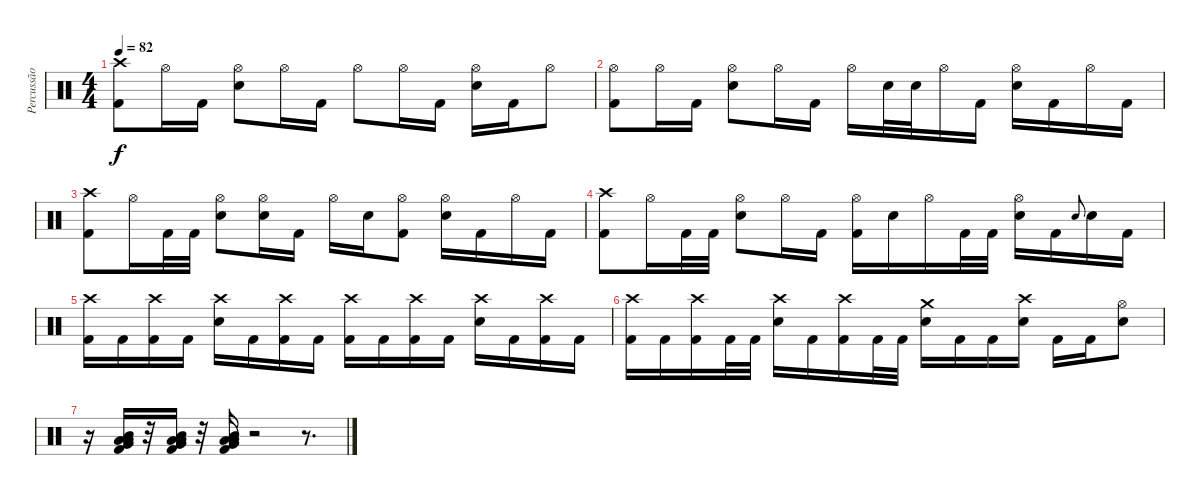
\track ("Percussão" "Percussão") {instrument percussion}
\staff {score}
\articulation defaults
\ts (4 4)
\tempo 82
\clef neutral
\ks c
("Crash high (hit)" "Kick (hit) 2").8{dy f} "Hi-Hat (open)".16 "Kick (hit) 2".16 ("Hi-Hat (open)" "Electric Snare (hit)").8 "Hi-Hat (open)".16 "Kick (hit) 2".16 "Hi-Hat (open)".8 "Hi-Hat (open)".16 "Kick (hit) 2".16 ("Hi-Hat (open)" "Electric Snare (hit)").16 "Kick (hit) 2".16 "Hi-Hat (open)".8 |
("Hi-Hat (open)" "Kick (hit) 2").8 "Hi-Hat (open)".16 "Kick (hit) 2".16 ("Hi-Hat (open)" "Electric Snare (hit)").8 "Hi-Hat (open)".16 "Kick (hit) 2".16 "Hi-Hat (open)".16 "Electric Snare (hit)".32 "Electric Snare (hit)".32 "Hi-Hat (open)".16 "Kick (hit) 2".16 ("Hi-Hat (open)" "Electric Snare (hit)").16 "Kick (hit) 2".16 "Hi-Hat (open)".16 "Kick (hit) 2".16 |
("Crash high (hit)" "Kick (hit) 2").8 "Hi-Hat (open)".16 "Kick (hit) 2".32 "Kick (hit) 2".32 ("Hi-Hat (open)" "Electric Snare (hit)").8 ("Electric Snare (hit)" "Hi-Hat (open)").16 "Kick (hit) 2".16 "Hi-Hat (open)".16 "Electric Snare (hit)".16 ("Kick (hit) 2" "Hi-Hat (open)").8 ("Hi-Hat (open)" "Electric Snare (hit)").16 "Kick (hit) 2".16 "Hi-Hat (open)".16 "Kick (hit) 2".16 |
("Crash high (hit)" "Kick (hit) 2").8 "Hi-Hat (open)".16 "Kick (hit) 2".32 "Kick (hit) 2".32 ("Hi-Hat (open)" "Electric Snare (hit)").8 "Hi-Hat (open)".16 "Kick (hit) 2".16 ("Kick (hit) 2" "Hi-Hat (open)").16 "Electric Snare (hit)".16 "Hi-Hat (open)".16 "Kick (hit) 2".32 "Kick (hit) 2".32 ("Hi-Hat (open)" "Electric Snare (hit)").16 "Kick (hit) 2".16 "Electric Snare (hit)".8{gr onbeat} "Electric Snare (hit)".16 "Kick (hit) 2".16 |
("Crash high (hit)" "Kick (hit) 2").16 "Kick (hit) 2".16 ("Kick (hit) 2" "Crash high (hit)").16 "Kick (hit) 2".16 ("Crash high (hit)" "Electric Snare (hit)").16 "Kick (hit) 2".16 ("Kick (hit) 2" "Crash high (hit)").16 "Kick (hit) 2".16 ("Crash high (hit)" "Kick (hit) 2").16 "Kick (hit) 2".16 ("Kick (hit) 2" "Crash high (hit)").16 "Kick (hit) 2".16 ("Crash high (hit)" "Electric Snare (hit)").16 "Kick (hit) 2".16 ("Kick (hit) 2" "Crash high (hit)").16 "Kick (hit) 2".16 |
("Crash high (hit)" "Kick (hit) 2").16 "Kick (hit) 2".16 ("Kick (hit) 2" "Crash high (hit)").16 "Kick (hit) 2".32 "Kick (hit) 2".32 ("Crash high (hit)" "Electric Snare (hit)").16 "Kick (hit) 2".16 ("Kick (hit) 2" "Crash high (hit)").16 "Kick (hit) 2".32 "Kick (hit) 2".32 ("Electric Snare (hit)" "Crash medium (hit)").16 "Kick (hit) 2".16 "Kick (hit) 2".16 ("Crash high (hit)" "Electric Snare (hit)").16 "Kick (hit) 2".16 "Kick (hit) 2".16 ("Hi-Hat (open)" "Electric Snare (hit)").8 |
r.16 ("Kick (hit) 2" "Low Tom (hit)" "Very Low Tom (hit)" "Low Floor Tom (hit)" "Mid Tom (hit)").16 r.32 ("Kick (hit) 2" "Low Tom (hit)" "Very Low Tom (hit)" "Low Floor Tom (hit)" "Mid Tom (hit)").16 r.32 ("Kick (hit) 2" "Low Tom (hit)" "Very Low Tom (hit)" "Low Floor Tom (hit)" "Mid Tom (hit)").16 r.2 r.8{d}
